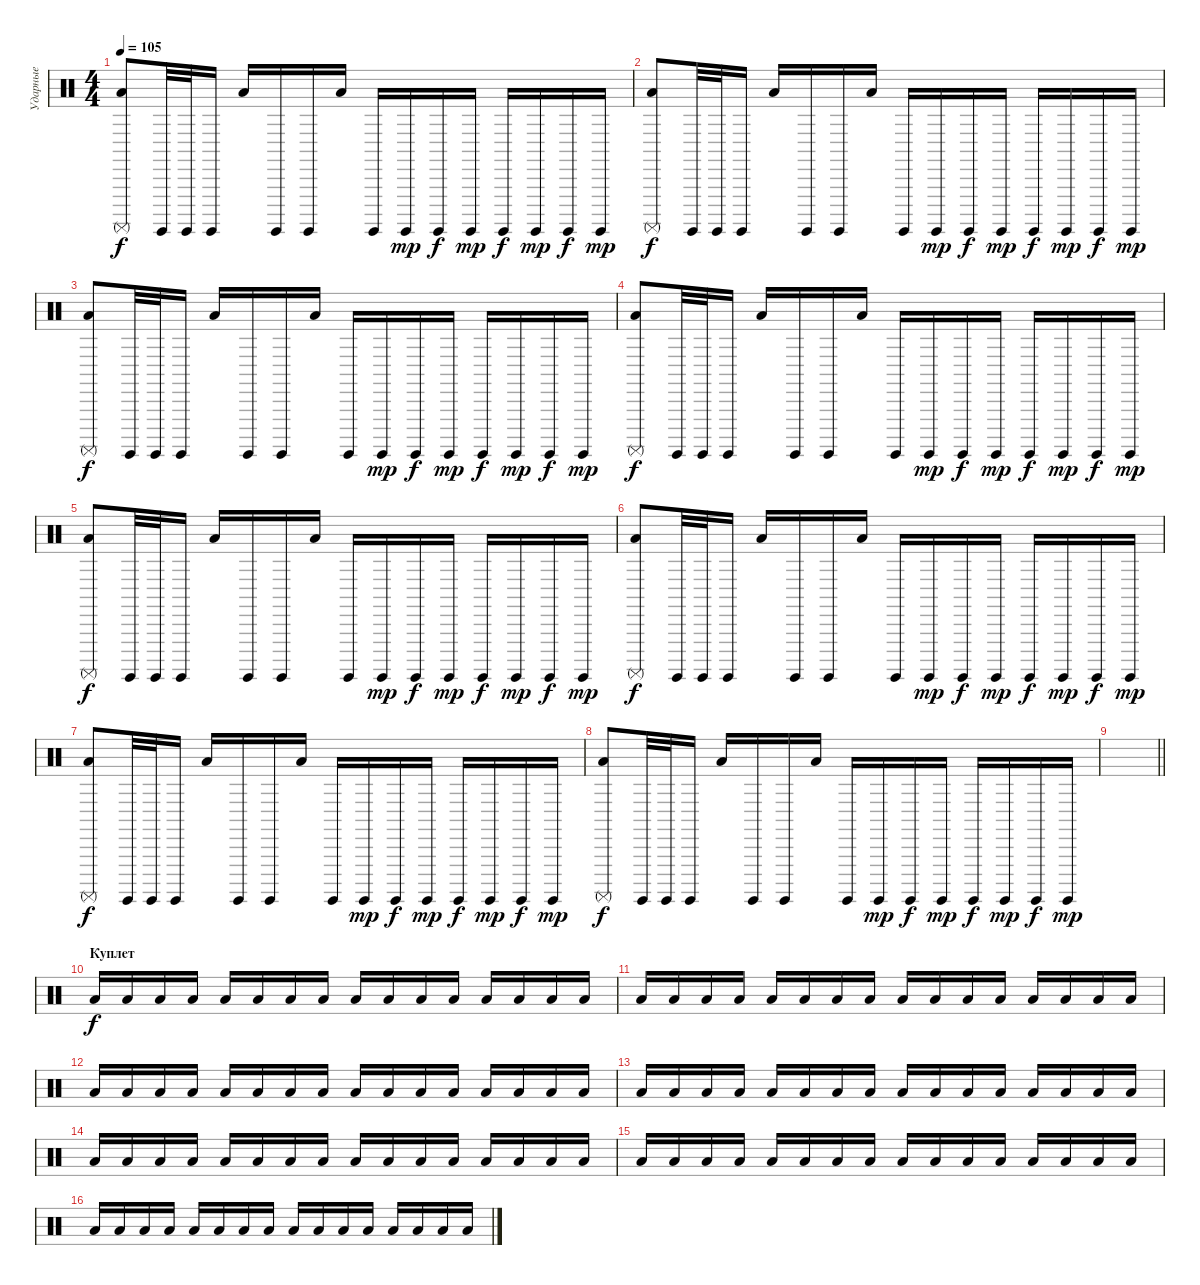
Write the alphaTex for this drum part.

\track ("Ударные" "Ударные") {instrument percussion}
\staff {score}
\articulation defaults
\ts (4 4)
\tempo 105
\clef neutral
\ks c
("Surdo (mute)" "Low Tom (hit)").8{dy f} "Surdo (hit)".32 "Surdo (hit)".32 "Surdo (hit)".16 "Low Tom (hit)".16 "Surdo (hit)".16 "Surdo (hit)".16 "Low Tom (hit)".16 "Surdo (hit)".16 "Surdo (hit)".16{dy mp} "Surdo (hit)".16{dy f} "Surdo (hit)".16{dy mp} "Surdo (hit)".16{dy f} "Surdo (hit)".16{dy mp} "Surdo (hit)".16{dy f} "Surdo (hit)".16{dy mp} |
("Surdo (mute)" "Low Tom (hit)").8{dy f} "Surdo (hit)".32 "Surdo (hit)".32 "Surdo (hit)".16 "Low Tom (hit)".16 "Surdo (hit)".16 "Surdo (hit)".16 "Low Tom (hit)".16 "Surdo (hit)".16 "Surdo (hit)".16{dy mp} "Surdo (hit)".16{dy f} "Surdo (hit)".16{dy mp} "Surdo (hit)".16{dy f} "Surdo (hit)".16{dy mp} "Surdo (hit)".16{dy f} "Surdo (hit)".16{dy mp} |
("Surdo (mute)" "Low Tom (hit)").8{dy f} "Surdo (hit)".32 "Surdo (hit)".32 "Surdo (hit)".16 "Low Tom (hit)".16 "Surdo (hit)".16 "Surdo (hit)".16 "Low Tom (hit)".16 "Surdo (hit)".16 "Surdo (hit)".16{dy mp} "Surdo (hit)".16{dy f} "Surdo (hit)".16{dy mp} "Surdo (hit)".16{dy f} "Surdo (hit)".16{dy mp} "Surdo (hit)".16{dy f} "Surdo (hit)".16{dy mp} |
("Surdo (mute)" "Low Tom (hit)").8{dy f} "Surdo (hit)".32 "Surdo (hit)".32 "Surdo (hit)".16 "Low Tom (hit)".16 "Surdo (hit)".16 "Surdo (hit)".16 "Low Tom (hit)".16 "Surdo (hit)".16 "Surdo (hit)".16{dy mp} "Surdo (hit)".16{dy f} "Surdo (hit)".16{dy mp} "Surdo (hit)".16{dy f} "Surdo (hit)".16{dy mp} "Surdo (hit)".16{dy f} "Surdo (hit)".16{dy mp} |
("Surdo (mute)" "Low Tom (hit)").8{dy f} "Surdo (hit)".32 "Surdo (hit)".32 "Surdo (hit)".16 "Low Tom (hit)".16 "Surdo (hit)".16 "Surdo (hit)".16 "Low Tom (hit)".16 "Surdo (hit)".16 "Surdo (hit)".16{dy mp} "Surdo (hit)".16{dy f} "Surdo (hit)".16{dy mp} "Surdo (hit)".16{dy f} "Surdo (hit)".16{dy mp} "Surdo (hit)".16{dy f} "Surdo (hit)".16{dy mp} |
("Surdo (mute)" "Low Tom (hit)").8{dy f} "Surdo (hit)".32 "Surdo (hit)".32 "Surdo (hit)".16 "Low Tom (hit)".16 "Surdo (hit)".16 "Surdo (hit)".16 "Low Tom (hit)".16 "Surdo (hit)".16 "Surdo (hit)".16{dy mp} "Surdo (hit)".16{dy f} "Surdo (hit)".16{dy mp} "Surdo (hit)".16{dy f} "Surdo (hit)".16{dy mp} "Surdo (hit)".16{dy f} "Surdo (hit)".16{dy mp} |
("Surdo (mute)" "Low Tom (hit)").8{dy f} "Surdo (hit)".32 "Surdo (hit)".32 "Surdo (hit)".16 "Low Tom (hit)".16 "Surdo (hit)".16 "Surdo (hit)".16 "Low Tom (hit)".16 "Surdo (hit)".16 "Surdo (hit)".16{dy mp} "Surdo (hit)".16{dy f} "Surdo (hit)".16{dy mp} "Surdo (hit)".16{dy f} "Surdo (hit)".16{dy mp} "Surdo (hit)".16{dy f} "Surdo (hit)".16{dy mp} |
("Surdo (mute)" "Low Tom (hit)").8{dy f} "Surdo (hit)".32 "Surdo (hit)".32 "Surdo (hit)".16 "Low Tom (hit)".16 "Surdo (hit)".16 "Surdo (hit)".16 "Low Tom (hit)".16 "Surdo (hit)".16 "Surdo (hit)".16{dy mp} "Surdo (hit)".16{dy f} "Surdo (hit)".16{dy mp} "Surdo (hit)".16{dy f} "Surdo (hit)".16{dy mp} "Surdo (hit)".16{dy f} "Surdo (hit)".16{dy mp} |
\barLineRight lightlight
|
\section ("" "Куплет")
"Low Tom (hit)".16{dy f} "Low Tom (hit)".16 "Low Tom (hit)".16 "Low Tom (hit)".16 "Low Tom (hit)".16 "Low Tom (hit)".16 "Low Tom (hit)".16 "Low Tom (hit)".16 "Low Tom (hit)".16 "Low Tom (hit)".16 "Low Tom (hit)".16 "Low Tom (hit)".16 "Low Tom (hit)".16 "Low Tom (hit)".16 "Low Tom (hit)".16 "Low Tom (hit)".16 |
"Low Tom (hit)".16 "Low Tom (hit)".16 "Low Tom (hit)".16 "Low Tom (hit)".16 "Low Tom (hit)".16 "Low Tom (hit)".16 "Low Tom (hit)".16 "Low Tom (hit)".16 "Low Tom (hit)".16 "Low Tom (hit)".16 "Low Tom (hit)".16 "Low Tom (hit)".16 "Low Tom (hit)".16 "Low Tom (hit)".16 "Low Tom (hit)".16 "Low Tom (hit)".16 |
"Low Tom (hit)".16 "Low Tom (hit)".16 "Low Tom (hit)".16 "Low Tom (hit)".16 "Low Tom (hit)".16 "Low Tom (hit)".16 "Low Tom (hit)".16 "Low Tom (hit)".16 "Low Tom (hit)".16 "Low Tom (hit)".16 "Low Tom (hit)".16 "Low Tom (hit)".16 "Low Tom (hit)".16 "Low Tom (hit)".16 "Low Tom (hit)".16 "Low Tom (hit)".16 |
"Low Tom (hit)".16 "Low Tom (hit)".16 "Low Tom (hit)".16 "Low Tom (hit)".16 "Low Tom (hit)".16 "Low Tom (hit)".16 "Low Tom (hit)".16 "Low Tom (hit)".16 "Low Tom (hit)".16 "Low Tom (hit)".16 "Low Tom (hit)".16 "Low Tom (hit)".16 "Low Tom (hit)".16 "Low Tom (hit)".16 "Low Tom (hit)".16 "Low Tom (hit)".16 |
"Low Tom (hit)".16 "Low Tom (hit)".16 "Low Tom (hit)".16 "Low Tom (hit)".16 "Low Tom (hit)".16 "Low Tom (hit)".16 "Low Tom (hit)".16 "Low Tom (hit)".16 "Low Tom (hit)".16 "Low Tom (hit)".16 "Low Tom (hit)".16 "Low Tom (hit)".16 "Low Tom (hit)".16 "Low Tom (hit)".16 "Low Tom (hit)".16 "Low Tom (hit)".16 |
"Low Tom (hit)".16 "Low Tom (hit)".16 "Low Tom (hit)".16 "Low Tom (hit)".16 "Low Tom (hit)".16 "Low Tom (hit)".16 "Low Tom (hit)".16 "Low Tom (hit)".16 "Low Tom (hit)".16 "Low Tom (hit)".16 "Low Tom (hit)".16 "Low Tom (hit)".16 "Low Tom (hit)".16 "Low Tom (hit)".16 "Low Tom (hit)".16 "Low Tom (hit)".16 |
"Low Tom (hit)".16 "Low Tom (hit)".16 "Low Tom (hit)".16 "Low Tom (hit)".16 "Low Tom (hit)".16 "Low Tom (hit)".16 "Low Tom (hit)".16 "Low Tom (hit)".16 "Low Tom (hit)".16 "Low Tom (hit)".16 "Low Tom (hit)".16 "Low Tom (hit)".16 "Low Tom (hit)".16 "Low Tom (hit)".16 "Low Tom (hit)".16 "Low Tom (hit)".16
